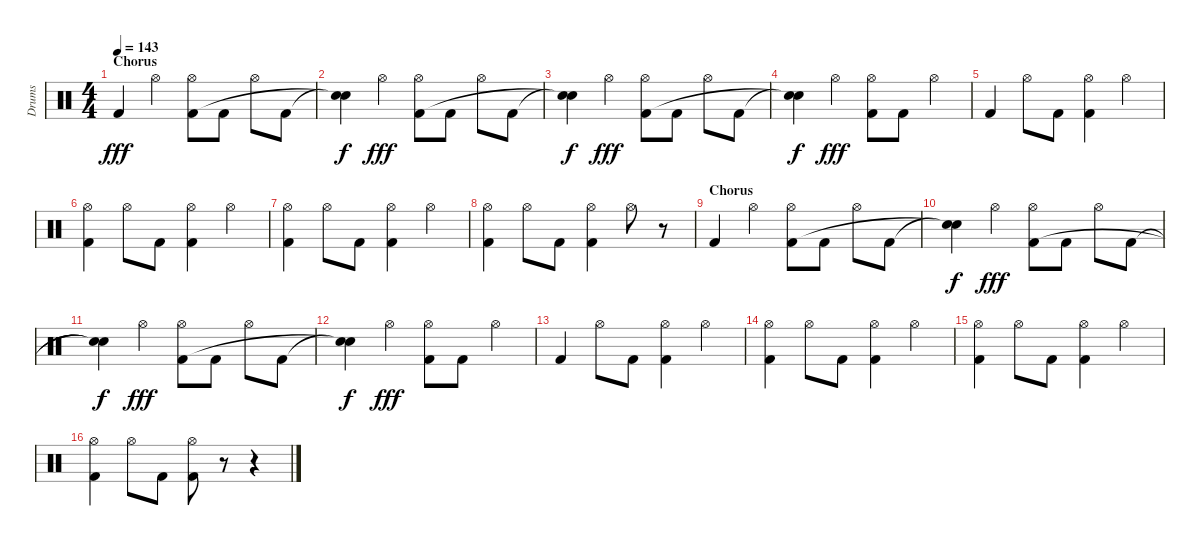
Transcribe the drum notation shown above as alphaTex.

\track ("Drums" "Drums") {instrument percussion}
\staff {score}
\articulation defaults
\ts (4 4)
\section ("" "Chorus")
\tempo 143
\clef neutral
\ks c "Kick (hit) 2".4{dy fff} "Hi-Hat (open)".4
("Hi-Hat (open)" "Kick (hit) 2").8 "Kick (hit) 2".8 "Hi-Hat (open)".8 "Kick (hit) 2".8 |
("Snare (hit)"{t} "Snare (hit)"{t}).4{dy f} "Hi-Hat (open)".4{dy fff} ("Hi-Hat (open)" "Kick (hit) 2").8 "Kick (hit) 2".8 "Hi-Hat (open)".8 "Kick (hit) 2".8 |
("Snare (hit)"{t} "Snare (hit)"{t}).4{dy f} "Hi-Hat (open)".4{dy fff} ("Hi-Hat (open)" "Kick (hit) 2").8 "Kick (hit) 2".8 "Hi-Hat (open)".8 "Kick (hit) 2".8 |
("Snare (hit)"{t} "Snare (hit)"{t}).4{dy f} "Hi-Hat (open)".4{dy fff} ("Hi-Hat (open)" "Kick (hit) 2").8 "Kick (hit) 2".8 "Hi-Hat (open)".4 |
"Kick (hit) 2".4 "Hi-Hat (open)".8 "Kick (hit) 2".8 ("Hi-Hat (open)" "Kick (hit) 2").4 "Hi-Hat (open)".4 |
("Hi-Hat (open)" "Kick (hit) 2").4 "Hi-Hat (open)".8 "Kick (hit) 2".8 ("Hi-Hat (open)" "Kick (hit) 2").4 "Hi-Hat (open)".4 |
("Hi-Hat (open)" "Kick (hit) 2").4 "Hi-Hat (open)".8 "Kick (hit) 2".8 ("Hi-Hat (open)" "Kick (hit) 2").4 "Hi-Hat (open)".4 |
("Hi-Hat (open)" "Kick (hit) 2").4 "Hi-Hat (open)".8 "Kick (hit) 2".8 ("Hi-Hat (open)" "Kick (hit) 2").4 "Hi-Hat (open)".8 r.8 |
\section ("" "Chorus")
"Kick (hit) 2".4 "Hi-Hat (open)".4 ("Hi-Hat (open)" "Kick (hit) 2").8 "Kick (hit) 2".8 "Hi-Hat (open)".8 "Kick (hit) 2".8 |
("Snare (hit)"{t} "Snare (hit)"{t}).4{dy f} "Hi-Hat (open)".4{dy fff} ("Hi-Hat (open)" "Kick (hit) 2").8 "Kick (hit) 2".8 "Hi-Hat (open)".8 "Kick (hit) 2".8 |
("Snare (hit)"{t} "Snare (hit)"{t}).4{dy f} "Hi-Hat (open)".4{dy fff} ("Hi-Hat (open)" "Kick (hit) 2").8 "Kick (hit) 2".8 "Hi-Hat (open)".8 "Kick (hit) 2".8 |
("Snare (hit)"{t} "Snare (hit)"{t}).4{dy f} "Hi-Hat (open)".4{dy fff} ("Hi-Hat (open)" "Kick (hit) 2").8 "Kick (hit) 2".8 "Hi-Hat (open)".4 |
"Kick (hit) 2".4 "Hi-Hat (open)".8 "Kick (hit) 2".8 ("Hi-Hat (open)" "Kick (hit) 2").4 "Hi-Hat (open)".4 |
("Hi-Hat (open)" "Kick (hit) 2").4 "Hi-Hat (open)".8 "Kick (hit) 2".8 ("Hi-Hat (open)" "Kick (hit) 2").4 "Hi-Hat (open)".4 |
("Hi-Hat (open)" "Kick (hit) 2").4 "Hi-Hat (open)".8 "Kick (hit) 2".8 ("Hi-Hat (open)" "Kick (hit) 2").4 "Hi-Hat (open)".4 |
("Hi-Hat (open)" "Kick (hit) 2").4 "Hi-Hat (open)".8 "Kick (hit) 2".8 ("Hi-Hat (open)" "Kick (hit) 2").8 r.8 r.4
